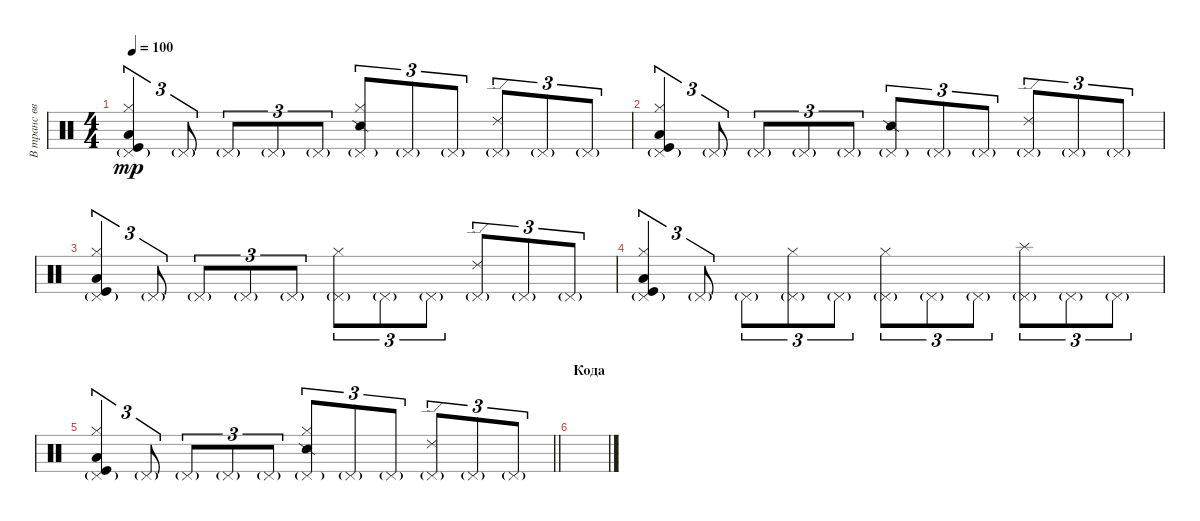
\track ("В транс вводящие" "В транс вв") {instrument percussion}
\staff {score}
\articulation defaults
\ts (4 4)
\tempo 100
\clef neutral
\ks c
("Pedal Hi-Hat (hit)"{g} "Hi-Hat (closed)" "Low Tom (hit)" "Kick (hit)").4{tu (3 2) dy mp} "Pedal Hi-Hat (hit)"{g}.8{tu (3 2)} "Pedal Hi-Hat (hit)"{g}.8{tu (3 2)} "Pedal Hi-Hat (hit)"{g}.8{tu (3 2)} "Pedal Hi-Hat (hit)"{g}.8{tu (3 2)} ("Pedal Hi-Hat (hit)"{g} "Snare (side stick) 2" "Hi-Hat (closed)").8{tu (3 2)} "Pedal Hi-Hat (hit)"{g}.8{tu (3 2)} "Pedal Hi-Hat (hit)"{g}.8{tu (3 2)} ("Pedal Hi-Hat (hit)"{g} "Ride (edge) 2").8{tu (3 2)} "Pedal Hi-Hat (hit)"{g}.8{tu (3 2)} "Pedal Hi-Hat (hit)"{g}.8{tu (3 2)} |
("Pedal Hi-Hat (hit)"{g} "Hi-Hat (closed)" "Low Tom (hit)" "Kick (hit)").4{tu (3 2)} "Pedal Hi-Hat (hit)"{g}.8{tu (3 2)} "Pedal Hi-Hat (hit)"{g}.8{tu (3 2)} "Pedal Hi-Hat (hit)"{g}.8{tu (3 2)} "Pedal Hi-Hat (hit)"{g}.8{tu (3 2)} ("Pedal Hi-Hat (hit)"{g} "Snare (side stick) 2").8{tu (3 2)} "Pedal Hi-Hat (hit)"{g}.8{tu (3 2)} "Pedal Hi-Hat (hit)"{g}.8{tu (3 2)} ("Pedal Hi-Hat (hit)"{g} "Ride (edge) 2").8{tu (3 2)} "Pedal Hi-Hat (hit)"{g}.8{tu (3 2)} "Pedal Hi-Hat (hit)"{g}.8{tu (3 2)} |
("Pedal Hi-Hat (hit)"{g} "Hi-Hat (closed)" "Low Tom (hit)" "Kick (hit)").4{tu (3 2)} "Pedal Hi-Hat (hit)"{g}.8{tu (3 2)} "Pedal Hi-Hat (hit)"{g}.8{tu (3 2)} "Pedal Hi-Hat (hit)"{g}.8{tu (3 2)} "Pedal Hi-Hat (hit)"{g}.8{tu (3 2)} ("Pedal Hi-Hat (hit)"{g} "Hi-Hat (closed)").8{tu (3 2)} "Pedal Hi-Hat (hit)"{g}.8{tu (3 2)} "Pedal Hi-Hat (hit)"{g}.8{tu (3 2)} ("Pedal Hi-Hat (hit)"{g} "Ride (edge) 2").8{tu (3 2)} "Pedal Hi-Hat (hit)"{g}.8{tu (3 2)} "Pedal Hi-Hat (hit)"{g}.8{tu (3 2)} |
("Pedal Hi-Hat (hit)"{g} "Hi-Hat (closed)" "Low Tom (hit)" "Kick (hit)").4{tu (3 2)} "Pedal Hi-Hat (hit)"{g}.8{tu (3 2)} "Pedal Hi-Hat (hit)"{g}.8{tu (3 2)} ("Pedal Hi-Hat (hit)"{g} "Hi-Hat (closed)").8{tu (3 2)} "Pedal Hi-Hat (hit)"{g}.8{tu (3 2)} ("Pedal Hi-Hat (hit)"{g} "Hi-Hat (closed)").8{tu (3 2)} "Pedal Hi-Hat (hit)"{g}.8{tu (3 2)} "Pedal Hi-Hat (hit)"{g}.8{tu (3 2)} ("Pedal Hi-Hat (hit)"{g} "Splash (hit)").8{tu (3 2)} "Pedal Hi-Hat (hit)"{g}.8{tu (3 2)} "Pedal Hi-Hat (hit)"{g}.8{tu (3 2)} |
\barLineRight lightlight
("Pedal Hi-Hat (hit)"{g} "Hi-Hat (closed)" "Low Tom (hit)" "Kick (hit)").4{tu (3 2)} "Pedal Hi-Hat (hit)"{g}.8{tu (3 2)} "Pedal Hi-Hat (hit)"{g}.8{tu (3 2)} "Pedal Hi-Hat (hit)"{g}.8{tu (3 2)} "Pedal Hi-Hat (hit)"{g}.8{tu (3 2)} ("Pedal Hi-Hat (hit)"{g} "Snare (side stick) 2" "Hi-Hat (closed)").8{tu (3 2)} "Pedal Hi-Hat (hit)"{g}.8{tu (3 2)} "Pedal Hi-Hat (hit)"{g}.8{tu (3 2)} ("Pedal Hi-Hat (hit)"{g} "Ride (edge) 2").8{tu (3 2)} "Pedal Hi-Hat (hit)"{g}.8{tu (3 2)} "Pedal Hi-Hat (hit)"{g}.8{tu (3 2)} |
\section ("" "Кода")
